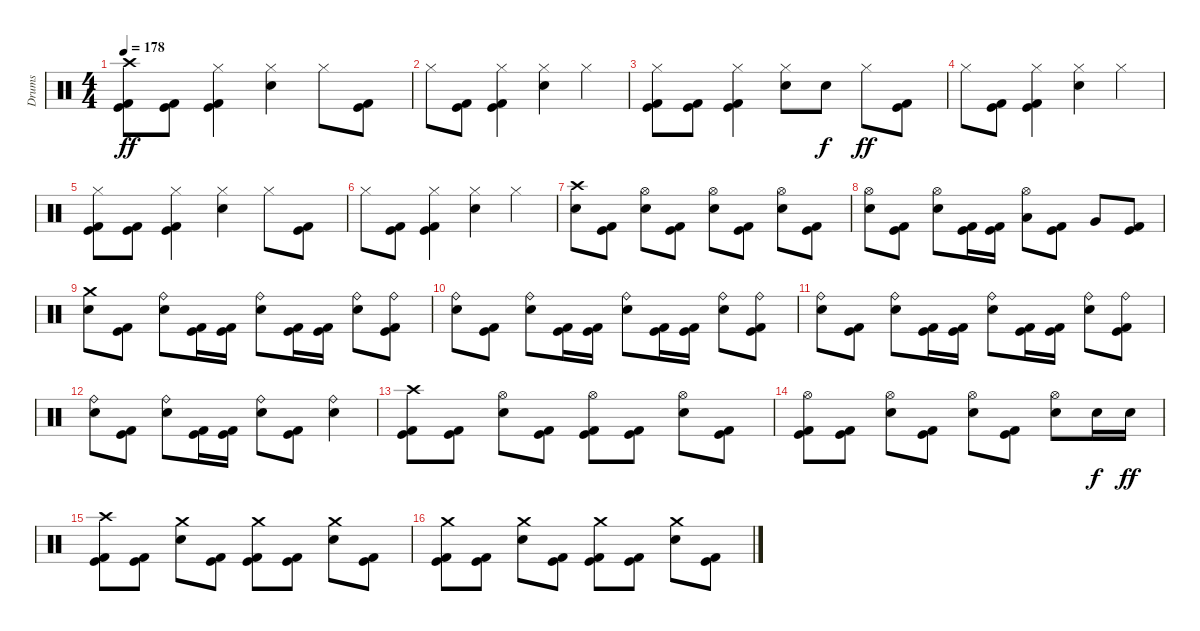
\track ("Drums" "Drums") {instrument percussion}
\staff {score}
\articulation defaults
\ts (4 4)
\tempo 178
\clef neutral
\ks c
("Kick (hit)" "Kick (hit) 2" "Crash high (hit)").8{dy ff} ("Kick (hit)" "Kick (hit) 2").8 ("Kick (hit)" "Kick (hit) 2" "Hi-Hat (closed)").4 ("Electric Snare (hit)" "Hi-Hat (closed)").4 "Hi-Hat (closed)".8 ("Kick (hit)" "Kick (hit) 2").8 |
"Hi-Hat (closed)".8 ("Kick (hit)" "Kick (hit) 2").8 ("Kick (hit)" "Kick (hit) 2" "Hi-Hat (closed)").4 ("Electric Snare (hit)" "Hi-Hat (closed)").4 "Hi-Hat (closed)".4 |
("Kick (hit)" "Kick (hit) 2" "Hi-Hat (closed)").8 ("Kick (hit)" "Kick (hit) 2").8 ("Kick (hit)" "Kick (hit) 2" "Hi-Hat (closed)").4 ("Electric Snare (hit)" "Hi-Hat (closed)").8 "Electric Snare (hit)".8{dy f} "Hi-Hat (closed)".8{dy ff} ("Kick (hit)" "Kick (hit) 2").8 |
"Hi-Hat (closed)".8 ("Kick (hit)" "Kick (hit) 2").8 ("Kick (hit)" "Kick (hit) 2" "Hi-Hat (closed)").4 ("Electric Snare (hit)" "Hi-Hat (closed)").4 "Hi-Hat (closed)".4 |
("Kick (hit)" "Kick (hit) 2" "Hi-Hat (closed)").8 ("Kick (hit)" "Kick (hit) 2").8 ("Kick (hit)" "Kick (hit) 2" "Hi-Hat (closed)").4 ("Electric Snare (hit)" "Hi-Hat (closed)").4 "Hi-Hat (closed)".8 ("Kick (hit)" "Kick (hit) 2").8 |
"Hi-Hat (closed)".8 ("Kick (hit)" "Kick (hit) 2").8 ("Kick (hit)" "Kick (hit) 2" "Hi-Hat (closed)").4 ("Electric Snare (hit)" "Hi-Hat (closed)").4 "Hi-Hat (closed)".4 |
("Electric Snare (hit)" "Crash high (hit)").8 ("Kick (hit)" "Kick (hit) 2").8 ("Electric Snare (hit)" "Hi-Hat (open)").8 ("Kick (hit)" "Kick (hit) 2").8 ("Electric Snare (hit)" "Hi-Hat (open)").8 ("Kick (hit)" "Kick (hit) 2").8 ("Electric Snare (hit)" "Hi-Hat (open)").8 ("Kick (hit)" "Kick (hit) 2").8 |
("Electric Snare (hit)" "Hi-Hat (open)").8 ("Kick (hit)" "Kick (hit) 2").8 ("Electric Snare (hit)" "Hi-Hat (open)").8 ("Kick (hit)" "Kick (hit) 2").16 ("Kick (hit)" "Kick (hit) 2").16 ("Low Tom (hit)" "Hi-Hat (open)").8 ("Kick (hit)" "Kick (hit) 2").8 "Very Low Tom (hit)".8 ("Kick (hit)" "Kick (hit) 2").8 |
("Electric Snare (hit)" "Crash medium (hit)").8 ("Kick (hit)" "Kick (hit) 2").8 ("Electric Snare (hit)" "Ride (bell)").8 ("Kick (hit)" "Kick (hit) 2").16 ("Kick (hit)" "Kick (hit) 2").16 ("Electric Snare (hit)" "Ride (bell)").8 ("Kick (hit)" "Kick (hit) 2").16 ("Kick (hit)" "Kick (hit) 2").16 ("Electric Snare (hit)" "Ride (bell)").8 ("Kick (hit)" "Kick (hit) 2" "Ride (bell)").8 |
("Electric Snare (hit)" "Ride (bell)").8 ("Kick (hit)" "Kick (hit) 2").8 ("Electric Snare (hit)" "Ride (bell)").8 ("Kick (hit)" "Kick (hit) 2").16 ("Kick (hit)" "Kick (hit) 2").16 ("Electric Snare (hit)" "Ride (bell)").8 ("Kick (hit)" "Kick (hit) 2").16 ("Kick (hit)" "Kick (hit) 2").16 ("Electric Snare (hit)" "Ride (bell)").8 ("Kick (hit)" "Kick (hit) 2" "Ride (bell)").8 |
("Electric Snare (hit)" "Ride (bell)").8 ("Kick (hit)" "Kick (hit) 2").8 ("Electric Snare (hit)" "Ride (bell)").8 ("Kick (hit)" "Kick (hit) 2").16 ("Kick (hit)" "Kick (hit) 2").16 ("Electric Snare (hit)" "Ride (bell)").8 ("Kick (hit)" "Kick (hit) 2").16 ("Kick (hit)" "Kick (hit) 2").16 ("Electric Snare (hit)" "Ride (bell)").8 ("Kick (hit)" "Kick (hit) 2" "Ride (bell)").8 |
("Electric Snare (hit)" "Ride (bell)").8 ("Kick (hit)" "Kick (hit) 2").8 ("Electric Snare (hit)" "Ride (bell)").8 ("Kick (hit)" "Kick (hit) 2").16 ("Kick (hit)" "Kick (hit) 2").16 ("Electric Snare (hit)" "Ride (bell)").8 ("Kick (hit)" "Kick (hit) 2").8 ("Electric Snare (hit)" "Ride (bell)").4 |
("Kick (hit)" "Kick (hit) 2" "Crash high (hit)").8 ("Kick (hit)" "Kick (hit) 2").8 ("Electric Snare (hit)" "Hi-Hat (open)").8 ("Kick (hit)" "Kick (hit) 2").8 ("Kick (hit)" "Kick (hit) 2" "Hi-Hat (open)").8 ("Kick (hit)" "Kick (hit) 2").8 ("Electric Snare (hit)" "Hi-Hat (open)").8 ("Kick (hit)" "Kick (hit) 2").8 |
("Kick (hit)" "Kick (hit) 2" "Hi-Hat (open)").8 ("Kick (hit)" "Kick (hit) 2").8 ("Electric Snare (hit)" "Hi-Hat (open)").8 ("Kick (hit)" "Kick (hit) 2").8 ("Electric Snare (hit)" "Hi-Hat (open)").8 ("Kick (hit)" "Kick (hit) 2").8 ("Electric Snare (hit)" "Hi-Hat (open)").8 "Electric Snare (hit)".16{dy f} "Electric Snare (hit)".16{dy ff} |
("Kick (hit)" "Kick (hit) 2" "Crash high (hit)").8 ("Kick (hit)" "Kick (hit) 2").8 ("Electric Snare (hit)" "Crash medium (hit)").8 ("Kick (hit)" "Kick (hit) 2").8 ("Kick (hit)" "Kick (hit) 2" "Crash medium (hit)").8 ("Kick (hit)" "Kick (hit) 2").8 ("Electric Snare (hit)" "Crash medium (hit)").8 ("Kick (hit)" "Kick (hit) 2").8 |
("Kick (hit)" "Kick (hit) 2" "Crash medium (hit)").8 ("Kick (hit)" "Kick (hit) 2").8 ("Electric Snare (hit)" "Crash medium (hit)").8 ("Kick (hit)" "Kick (hit) 2").8 ("Kick (hit)" "Kick (hit) 2" "Crash medium (hit)").8 ("Kick (hit)" "Kick (hit) 2").8 ("Electric Snare (hit)" "Crash medium (hit)").8 ("Kick (hit)" "Kick (hit) 2").8
